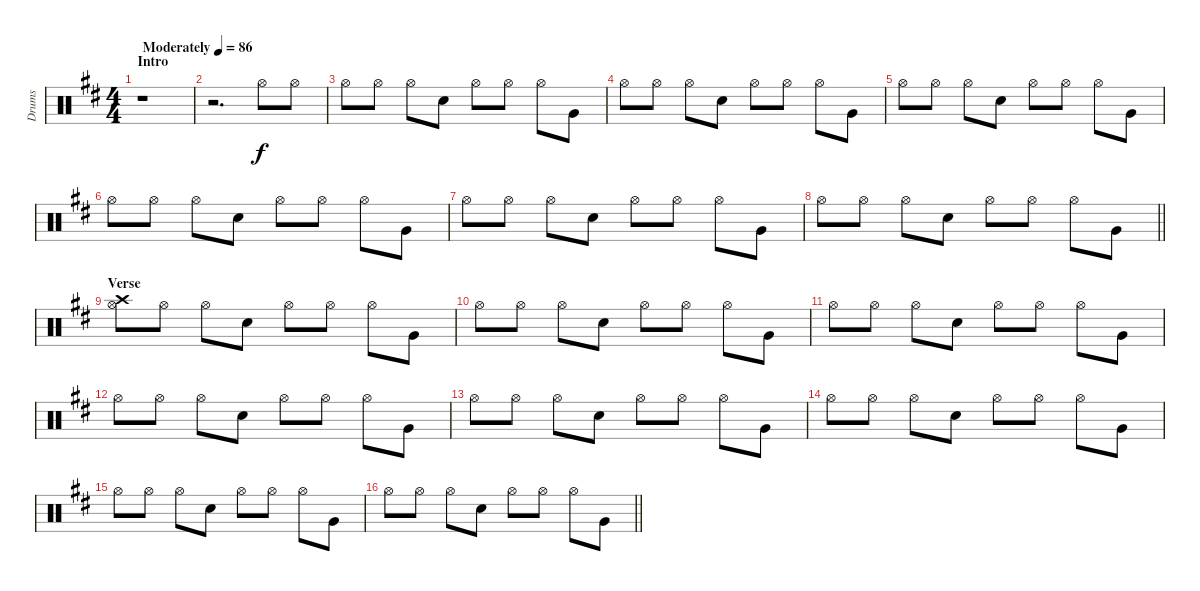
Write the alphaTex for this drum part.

\track ("Drums" "Drums") {instrument percussion}
\staff {score}
\articulation defaults
\ts (4 4)
\section ("" "Intro")
\tempo (86 "Moderately")
\clef neutral
\ks d
r.1{dy f} |
r.2{d} "Hi-Hat (open)".8 "Hi-Hat (open)".8 |
"Hi-Hat (open)".8 "Hi-Hat (open)".8 "Hi-Hat (open)".8 "Electric Snare (hit)".8 "Hi-Hat (open)".8 "Hi-Hat (open)".8 "Hi-Hat (open)".8 "Very Low Tom (hit)".8 |
"Hi-Hat (open)".8 "Hi-Hat (open)".8 "Hi-Hat (open)".8 "Electric Snare (hit)".8 "Hi-Hat (open)".8 "Hi-Hat (open)".8 "Hi-Hat (open)".8 "Very Low Tom (hit)".8 |
"Hi-Hat (open)".8 "Hi-Hat (open)".8 "Hi-Hat (open)".8 "Electric Snare (hit)".8 "Hi-Hat (open)".8 "Hi-Hat (open)".8 "Hi-Hat (open)".8 "Very Low Tom (hit)".8 |
"Hi-Hat (open)".8 "Hi-Hat (open)".8 "Hi-Hat (open)".8 "Electric Snare (hit)".8 "Hi-Hat (open)".8 "Hi-Hat (open)".8 "Hi-Hat (open)".8 "Very Low Tom (hit)".8 |
"Hi-Hat (open)".8 "Hi-Hat (open)".8 "Hi-Hat (open)".8 "Electric Snare (hit)".8 "Hi-Hat (open)".8 "Hi-Hat (open)".8 "Hi-Hat (open)".8 "Very Low Tom (hit)".8 |
\barLineRight lightlight "Hi-Hat (open)".8 "Hi-Hat (open)".8 "Hi-Hat (open)".8 "Electric Snare (hit)".8 "Hi-Hat (open)".8 "Hi-Hat (open)".8 "Hi-Hat (open)".8 "Very Low Tom (hit)".8
|
\section ("" "Verse")
("Crash high (hit)" "Hi-Hat (open)").8 "Hi-Hat (open)".8 "Hi-Hat (open)".8 "Electric Snare (hit)".8 "Hi-Hat (open)".8 "Hi-Hat (open)".8 "Hi-Hat (open)".8 "Very Low Tom (hit)".8 |
"Hi-Hat (open)".8 "Hi-Hat (open)".8 "Hi-Hat (open)".8 "Electric Snare (hit)".8 "Hi-Hat (open)".8 "Hi-Hat (open)".8 "Hi-Hat (open)".8 "Very Low Tom (hit)".8 |
"Hi-Hat (open)".8 "Hi-Hat (open)".8 "Hi-Hat (open)".8 "Electric Snare (hit)".8 "Hi-Hat (open)".8 "Hi-Hat (open)".8 "Hi-Hat (open)".8 "Very Low Tom (hit)".8 |
"Hi-Hat (open)".8 "Hi-Hat (open)".8 "Hi-Hat (open)".8 "Electric Snare (hit)".8 "Hi-Hat (open)".8 "Hi-Hat (open)".8 "Hi-Hat (open)".8 "Very Low Tom (hit)".8 |
"Hi-Hat (open)".8 "Hi-Hat (open)".8 "Hi-Hat (open)".8 "Electric Snare (hit)".8 "Hi-Hat (open)".8 "Hi-Hat (open)".8 "Hi-Hat (open)".8 "Very Low Tom (hit)".8 |
"Hi-Hat (open)".8 "Hi-Hat (open)".8 "Hi-Hat (open)".8 "Electric Snare (hit)".8 "Hi-Hat (open)".8 "Hi-Hat (open)".8 "Hi-Hat (open)".8 "Very Low Tom (hit)".8 |
"Hi-Hat (open)".8 "Hi-Hat (open)".8 "Hi-Hat (open)".8 "Electric Snare (hit)".8 "Hi-Hat (open)".8 "Hi-Hat (open)".8 "Hi-Hat (open)".8 "Very Low Tom (hit)".8 |
\barLineRight lightlight "Hi-Hat (open)".8 "Hi-Hat (open)".8 "Hi-Hat (open)".8 "Electric Snare (hit)".8 "Hi-Hat (open)".8 "Hi-Hat (open)".8 "Hi-Hat (open)".8 "Very Low Tom (hit)".8
